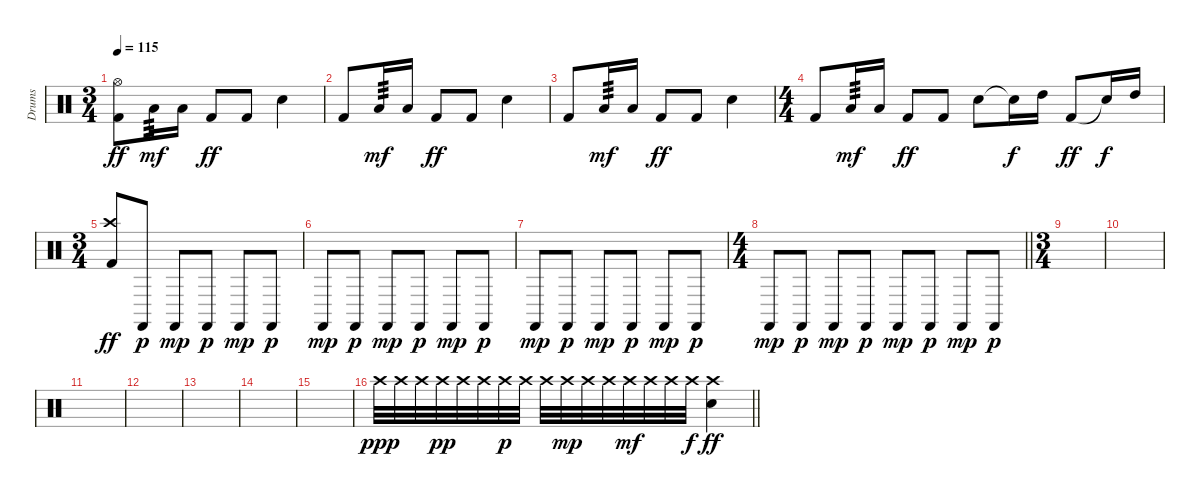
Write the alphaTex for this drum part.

\track ("Drums" "Drums") {instrument percussion}
\staff {score}
\articulation defaults
\ts (3 4)
\tempo 115
\clef neutral
\ks c
("Hi-Hat (open)" "Kick (hit) 2").8{dy ff} "Low Tom (hit)".16{tp 3 dy mf} "Low Tom (hit)".16 "Kick (hit) 2".8{dy ff} "Kick (hit) 2".8 "Snare (hit) 2".4 |
"Kick (hit) 2".8 "Low Tom (hit)".16{tp 3 dy mf} "Low Tom (hit)".16 "Kick (hit) 2".8{dy ff} "Kick (hit) 2".8 "Snare (hit) 2".4 |
"Kick (hit) 2".8 "Low Tom (hit)".16{tp 3 dy mf} "Low Tom (hit)".16 "Kick (hit) 2".8{dy ff} "Kick (hit) 2".8 "Snare (hit) 2".4 |
\ts (4 4)
"Kick (hit) 2".8 "Low Tom (hit)".16{tp 3 dy mf} "Low Tom (hit)".16 "Kick (hit) 2".8{dy ff} "Kick (hit) 2".8 "Snare (hit) 2".8 "Snare (hit)"{t}.16{dy f} "High Tom (hit)".16 "Kick (hit) 2".8{dy ff} "Snare (hit)"{t}.16{dy f} "High Tom (hit)".16 |
\ts (3 4)
("Crash high (hit)" "Kick (hit) 2").8{dy ff} "Castanets (hit)".8{dy p} "Castanets (hit)".8{dy mp} "Castanets (hit)".8{dy p} "Castanets (hit)".8{dy mp} "Castanets (hit)".8{dy p} |
"Castanets (hit)".8{dy mp} "Castanets (hit)".8{dy p} "Castanets (hit)".8{dy mp} "Castanets (hit)".8{dy p} "Castanets (hit)".8{dy mp} "Castanets (hit)".8{dy p} |
"Castanets (hit)".8{dy mp} "Castanets (hit)".8{dy p} "Castanets (hit)".8{dy mp} "Castanets (hit)".8{dy p} "Castanets (hit)".8{dy mp} "Castanets (hit)".8{dy p} |
\ts (4 4)
\barLineRight lightlight "Castanets (hit)".8{dy mp} "Castanets (hit)".8{dy p} "Castanets (hit)".8{dy mp} "Castanets (hit)".8{dy p} "Castanets (hit)".8{dy mp} "Castanets (hit)".8{dy p} "Castanets (hit)".8{dy mp} "Castanets (hit)".8{dy p}
|
\ts (3 4)
\section ("" "")
|
|
|
|
|
|
|
\barLineRight lightlight "Crash high (hit)".32{dy ppp} "Crash high (hit)".32 "Crash high (hit)".32 "Crash high (hit)".32{dy pp} "Crash high (hit)".32 "Crash high (hit)".32 "Crash high (hit)".32{dy p} "Crash high (hit)".32 "Crash high (hit)".32 "Crash high (hit)".32{dy mp} "Crash high (hit)".32 "Crash high (hit)".32 "Crash high (hit)".32{dy mf} "Crash high (hit)".32 "Crash high (hit)".32 "Crash high (hit)".32{dy f}
("Crash high (hit)" "Snare (hit) 2").4{dy ff}
